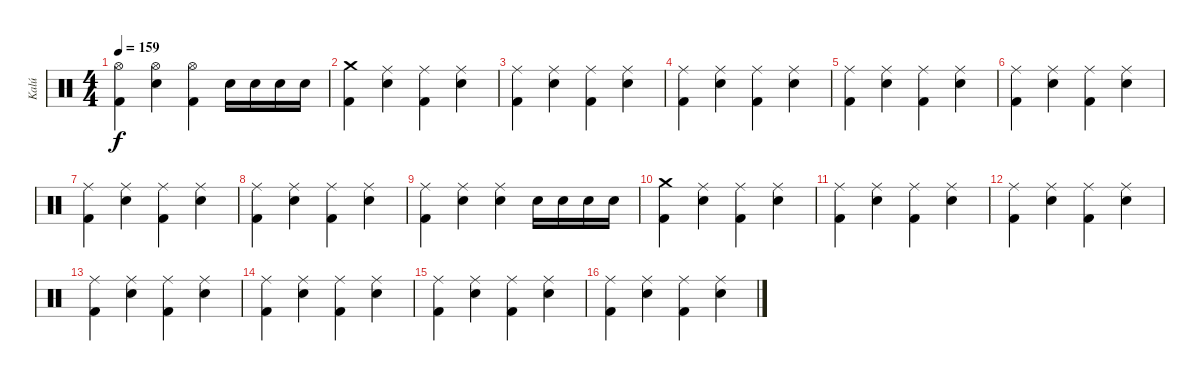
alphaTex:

\track ("Kalú" "Kalú") {instrument percussion}
\staff {score}
\articulation defaults
\ts (4 4)
\tempo 159
\clef neutral
\ks c
("Hi-Hat (open)" "Kick (hit) 2").4{dy f} ("Hi-Hat (open)" "Electric Snare (hit)").4 ("Hi-Hat (open)" "Kick (hit) 2").4 "Electric Snare (hit)".16 "Electric Snare (hit)".16 "Electric Snare (hit)".16 "Electric Snare (hit)".16 |
("Crash medium (hit)" "Kick (hit) 2").4 ("Ride (middle)" "Electric Snare (hit)").4 ("Ride (middle)" "Kick (hit) 2").4 ("Ride (middle)" "Electric Snare (hit)").4 |
("Ride (middle)" "Kick (hit) 2").4 ("Ride (middle)" "Electric Snare (hit)").4 ("Ride (middle)" "Kick (hit) 2").4 ("Ride (middle)" "Electric Snare (hit)").4 |
("Ride (middle)" "Kick (hit) 2").4 ("Ride (middle)" "Electric Snare (hit)").4 ("Ride (middle)" "Kick (hit) 2").4 ("Ride (middle)" "Electric Snare (hit)").4 |
("Ride (middle)" "Kick (hit) 2").4 ("Ride (middle)" "Electric Snare (hit)").4 ("Ride (middle)" "Kick (hit) 2").4 ("Ride (middle)" "Electric Snare (hit)").4 |
("Ride (middle)" "Kick (hit) 2").4 ("Ride (middle)" "Electric Snare (hit)").4 ("Ride (middle)" "Kick (hit) 2").4 ("Ride (middle)" "Electric Snare (hit)").4 |
("Ride (middle)" "Kick (hit) 2").4 ("Ride (middle)" "Electric Snare (hit)").4 ("Ride (middle)" "Kick (hit) 2").4 ("Ride (middle)" "Electric Snare (hit)").4 |
("Ride (middle)" "Kick (hit) 2").4 ("Ride (middle)" "Electric Snare (hit)").4 ("Ride (middle)" "Kick (hit) 2").4 ("Ride (middle)" "Electric Snare (hit)").4 |
("Ride (middle)" "Kick (hit) 2").4 ("Ride (middle)" "Electric Snare (hit)").4 ("Ride (middle)" "Electric Snare (hit)").4 "Electric Snare (hit)".16 "Electric Snare (hit)".16 "Electric Snare (hit)".16 "Electric Snare (hit)".16 |
("Crash medium (hit)" "Kick (hit) 2").4 ("Ride (middle)" "Electric Snare (hit)").4 ("Ride (middle)" "Kick (hit) 2").4 ("Ride (middle)" "Electric Snare (hit)").4 |
("Ride (middle)" "Kick (hit) 2").4 ("Ride (middle)" "Electric Snare (hit)").4 ("Ride (middle)" "Kick (hit) 2").4 ("Ride (middle)" "Electric Snare (hit)").4 |
("Ride (middle)" "Kick (hit) 2").4 ("Ride (middle)" "Electric Snare (hit)").4 ("Ride (middle)" "Kick (hit) 2").4 ("Ride (middle)" "Electric Snare (hit)").4 |
("Ride (middle)" "Kick (hit) 2").4 ("Ride (middle)" "Electric Snare (hit)").4 ("Ride (middle)" "Kick (hit) 2").4 ("Ride (middle)" "Electric Snare (hit)").4 |
("Ride (middle)" "Kick (hit) 2").4 ("Ride (middle)" "Electric Snare (hit)").4 ("Ride (middle)" "Kick (hit) 2").4 ("Ride (middle)" "Electric Snare (hit)").4 |
("Ride (middle)" "Kick (hit) 2").4 ("Ride (middle)" "Electric Snare (hit)").4 ("Ride (middle)" "Kick (hit) 2").4 ("Ride (middle)" "Electric Snare (hit)").4 |
("Ride (middle)" "Kick (hit) 2").4 ("Ride (middle)" "Electric Snare (hit)").4 ("Ride (middle)" "Kick (hit) 2").4 ("Ride (middle)" "Electric Snare (hit)").4
